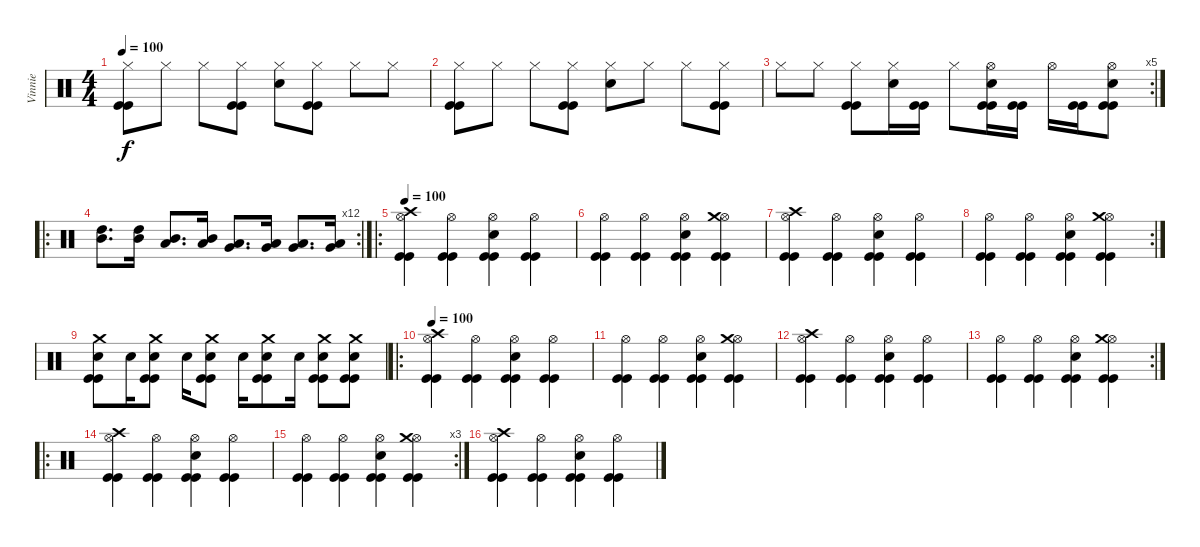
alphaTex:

\track ("Vinnie" "Vinnie") {instrument percussion}
\staff {score}
\articulation defaults
\ts (4 4)
\tempo 100
\clef neutral
\ks c
("Hi-Hat (closed)" "Kick (hit)" "Kick (hit)").8{dy f} "Hi-Hat (closed)".8 "Hi-Hat (closed)".8 ("Hi-Hat (closed)" "Kick (hit)" "Kick (hit)").8 ("Hi-Hat (closed)" "Snare (hit) 2").8 ("Hi-Hat (closed)" "Kick (hit)" "Kick (hit)").8 "Hi-Hat (closed)".8 "Hi-Hat (closed)".8 |
("Hi-Hat (closed)" "Kick (hit)" "Kick (hit)").8 "Hi-Hat (closed)".8 "Hi-Hat (closed)".8 ("Hi-Hat (closed)" "Kick (hit)" "Kick (hit)").8 ("Hi-Hat (closed)" "Snare (hit) 2").8 "Hi-Hat (closed)".8 "Hi-Hat (closed)".8 ("Hi-Hat (closed)" "Kick (hit)" "Kick (hit)").8 |
\rc 5 "Hi-Hat (closed)".8 "Hi-Hat (closed)".8
("Hi-Hat (closed)" "Kick (hit)" "Kick (hit)").8 ("Hi-Hat (closed)" "Snare (hit) 2").16 ("Kick (hit)" "Kick (hit)").16 "Hi-Hat (closed)".8 ("Hi-Hat (open)" "Snare (hit) 2" "Kick (hit)" "Kick (hit)").16 ("Kick (hit)" "Kick (hit)").16 "Hi-Hat (open)".16 ("Kick (hit)" "Kick (hit)").16 ("Hi-Hat (open)" "Snare (hit) 2" "Kick (hit)" "Kick (hit)").8 |
\ro
\rc 12
("High Tom (hit)" "Mid Tom (hit)").8{d} ("High Tom (hit)" "Mid Tom (hit)").16 ("Mid Tom (hit)" "Low Tom (hit)").8{d} ("Mid Tom (hit)" "Low Tom (hit)").16 ("Low Tom (hit)" "Very Low Tom (hit)").8{d} ("Low Tom (hit)" "Very Low Tom (hit)").16 ("Very Low Tom (hit)" "Low Floor Tom (hit)").8{d} ("Very Low Tom (hit)" "Low Floor Tom (hit)").16 |
\ro
\tempo 100
("Hi-Hat (open)" "Crash high (hit)" "Kick (hit)" "Kick (hit)").4 ("Hi-Hat (open)" "Kick (hit)" "Kick (hit)").4 ("Hi-Hat (open)" "Snare (hit) 2" "Kick (hit)" "Kick (hit)").4 ("Hi-Hat (open)" "Kick (hit)" "Kick (hit)").4 |
("Hi-Hat (open)" "Kick (hit)" "Kick (hit)").4 ("Hi-Hat (open)" "Kick (hit)" "Kick (hit)").4 ("Hi-Hat (open)" "Snare (hit) 2" "Kick (hit)" "Kick (hit)").4 ("Hi-Hat (open)" "Crash medium (hit)" "Kick (hit)" "Kick (hit)").4 |
("Hi-Hat (open)" "Crash high (hit)" "Kick (hit)" "Kick (hit)").4 ("Hi-Hat (open)" "Kick (hit)" "Kick (hit)").4 ("Hi-Hat (open)" "Snare (hit) 2" "Kick (hit)" "Kick (hit)").4 ("Hi-Hat (open)" "Kick (hit)" "Kick (hit)").4 |
\rc 2
("Hi-Hat (open)" "Kick (hit)" "Kick (hit)").4 ("Hi-Hat (open)" "Kick (hit)" "Kick (hit)").4 ("Hi-Hat (open)" "Snare (hit) 2" "Kick (hit)" "Kick (hit)").4 ("Hi-Hat (open)" "Crash medium (hit)" "Kick (hit)" "Kick (hit)").4 |
("Crash medium (hit)" "Snare (hit) 2" "Kick (hit)" "Kick (hit)").8 "Snare (hit) 2".16 ("Crash medium (hit)" "Snare (hit) 2" "Kick (hit)" "Kick (hit)").8 "Snare (hit) 2".16 ("Crash medium (hit)" "Snare (hit) 2" "Kick (hit)" "Kick (hit)").8 "Snare (hit) 2".16 ("Crash medium (hit)" "Snare (hit) 2" "Kick (hit)" "Kick (hit)").8 "Snare (hit) 2".16 ("Crash medium (hit)" "Snare (hit) 2" "Kick (hit)" "Kick (hit)").8 ("Crash medium (hit)" "Snare (hit) 2" "Kick (hit)" "Kick (hit)").8 |
\ro
\tempo 100
("Hi-Hat (open)" "Crash high (hit)" "Kick (hit)" "Kick (hit)").4 ("Hi-Hat (open)" "Kick (hit)" "Kick (hit)").4 ("Hi-Hat (open)" "Snare (hit) 2" "Kick (hit)" "Kick (hit)").4 ("Hi-Hat (open)" "Kick (hit)" "Kick (hit)").4 |
("Hi-Hat (open)" "Kick (hit)" "Kick (hit)").4 ("Hi-Hat (open)" "Kick (hit)" "Kick (hit)").4 ("Hi-Hat (open)" "Snare (hit) 2" "Kick (hit)" "Kick (hit)").4 ("Hi-Hat (open)" "Crash medium (hit)" "Kick (hit)" "Kick (hit)").4 |
("Hi-Hat (open)" "Crash high (hit)" "Kick (hit)" "Kick (hit)").4 ("Hi-Hat (open)" "Kick (hit)" "Kick (hit)").4 ("Hi-Hat (open)" "Snare (hit) 2" "Kick (hit)" "Kick (hit)").4 ("Hi-Hat (open)" "Kick (hit)" "Kick (hit)").4 |
\rc 2
("Hi-Hat (open)" "Kick (hit)" "Kick (hit)").4 ("Hi-Hat (open)" "Kick (hit)" "Kick (hit)").4 ("Hi-Hat (open)" "Snare (hit) 2" "Kick (hit)" "Kick (hit)").4 ("Hi-Hat (open)" "Crash medium (hit)" "Kick (hit)" "Kick (hit)").4 |
\ro
("Hi-Hat (open)" "Crash high (hit)" "Kick (hit)" "Kick (hit)").4 ("Hi-Hat (open)" "Kick (hit)" "Kick (hit)").4 ("Hi-Hat (open)" "Snare (hit) 2" "Kick (hit)" "Kick (hit)").4 ("Hi-Hat (open)" "Kick (hit)" "Kick (hit)").4 |
\rc 3
("Hi-Hat (open)" "Kick (hit)" "Kick (hit)").4 ("Hi-Hat (open)" "Kick (hit)" "Kick (hit)").4 ("Hi-Hat (open)" "Snare (hit) 2" "Kick (hit)" "Kick (hit)").4 ("Hi-Hat (open)" "Crash medium (hit)" "Kick (hit)" "Kick (hit)").4 |
("Hi-Hat (open)" "Crash high (hit)" "Kick (hit)" "Kick (hit)").4 ("Hi-Hat (open)" "Kick (hit)" "Kick (hit)").4 ("Hi-Hat (open)" "Snare (hit) 2" "Kick (hit)" "Kick (hit)").4 ("Hi-Hat (open)" "Kick (hit)" "Kick (hit)").4
